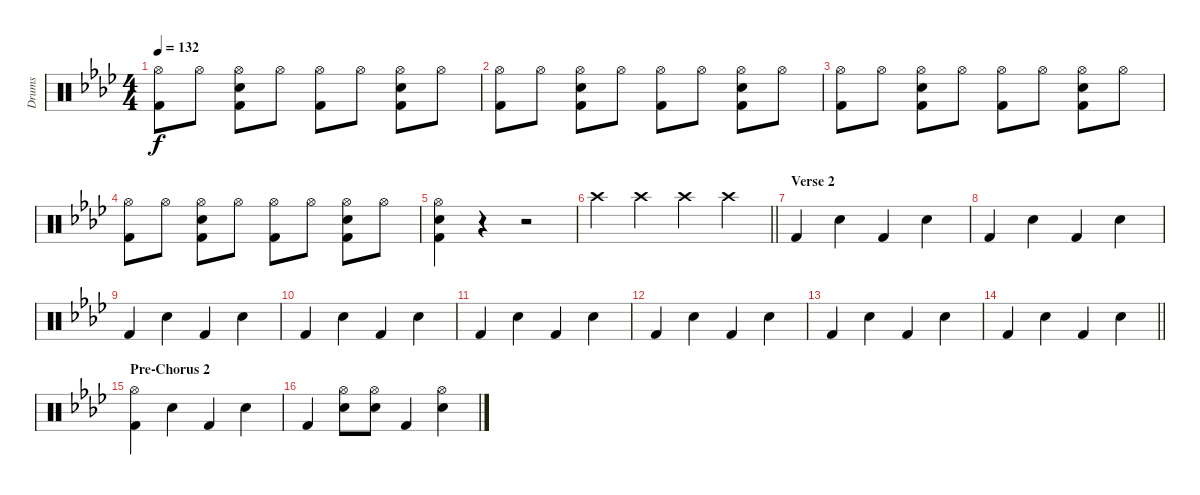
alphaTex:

\track ("Drums" "Drums") {instrument percussion}
\staff {score}
\articulation defaults
\ts (4 4)
\tempo 132
\clef neutral
\ks ab
("Hi-Hat (open)" "Kick (hit) 2").8{dy f} "Hi-Hat (open)".8 ("Hi-Hat (open)" "Electric Snare (hit)" "Kick (hit) 2").8 "Hi-Hat (open)".8 ("Hi-Hat (open)" "Kick (hit) 2").8 "Hi-Hat (open)".8 ("Hi-Hat (open)" "Electric Snare (hit)" "Kick (hit) 2").8 "Hi-Hat (open)".8 |
("Hi-Hat (open)" "Kick (hit) 2").8 "Hi-Hat (open)".8 ("Hi-Hat (open)" "Electric Snare (hit)" "Kick (hit) 2").8 "Hi-Hat (open)".8 ("Hi-Hat (open)" "Kick (hit) 2").8 "Hi-Hat (open)".8 ("Hi-Hat (open)" "Electric Snare (hit)" "Kick (hit) 2").8 "Hi-Hat (open)".8 |
("Hi-Hat (open)" "Kick (hit) 2").8 "Hi-Hat (open)".8 ("Hi-Hat (open)" "Electric Snare (hit)" "Kick (hit) 2").8 "Hi-Hat (open)".8 ("Hi-Hat (open)" "Kick (hit) 2").8 "Hi-Hat (open)".8 ("Hi-Hat (open)" "Electric Snare (hit)" "Kick (hit) 2").8 "Hi-Hat (open)".8 |
("Hi-Hat (open)" "Kick (hit) 2").8 "Hi-Hat (open)".8 ("Hi-Hat (open)" "Electric Snare (hit)" "Kick (hit) 2").8 "Hi-Hat (open)".8 ("Hi-Hat (open)" "Kick (hit) 2").8 "Hi-Hat (open)".8 ("Hi-Hat (open)" "Electric Snare (hit)" "Kick (hit) 2").8 "Hi-Hat (open)".8 |
("Hi-Hat (open)" "Electric Snare (hit)" "Kick (hit) 2").4 r.4 r.2 |
\barLineRight lightlight "Crash high (hit)".4 "Crash high (hit)".4 "Crash high (hit)".4 "Crash high (hit)".4
|
\section ("" "Verse 2")
"Kick (hit) 2".4 "Electric Snare (hit)".4 "Kick (hit) 2".4 "Electric Snare (hit)".4 |
"Kick (hit) 2".4 "Electric Snare (hit)".4 "Kick (hit) 2".4 "Electric Snare (hit)".4 |
"Kick (hit) 2".4 "Electric Snare (hit)".4 "Kick (hit) 2".4 "Electric Snare (hit)".4 |
"Kick (hit) 2".4 "Electric Snare (hit)".4 "Kick (hit) 2".4 "Electric Snare (hit)".4 |
"Kick (hit) 2".4 "Electric Snare (hit)".4 "Kick (hit) 2".4 "Electric Snare (hit)".4 |
"Kick (hit) 2".4 "Electric Snare (hit)".4 "Kick (hit) 2".4 "Electric Snare (hit)".4 |
"Kick (hit) 2".4 "Electric Snare (hit)".4 "Kick (hit) 2".4 "Electric Snare (hit)".4 |
\barLineRight lightlight "Kick (hit) 2".4 "Electric Snare (hit)".4 "Kick (hit) 2".4 "Electric Snare (hit)".4
|
\section ("" "Pre-Chorus 2")
("Hi-Hat (open)" "Kick (hit) 2").4 "Electric Snare (hit)".4 "Kick (hit) 2".4 "Electric Snare (hit)".4 |
"Kick (hit) 2".4 ("Hi-Hat (open)" "Electric Snare (hit)").8 ("Hi-Hat (open)" "Electric Snare (hit)").8 "Kick (hit) 2".4 ("Hi-Hat (open)" "Electric Snare (hit)").4
